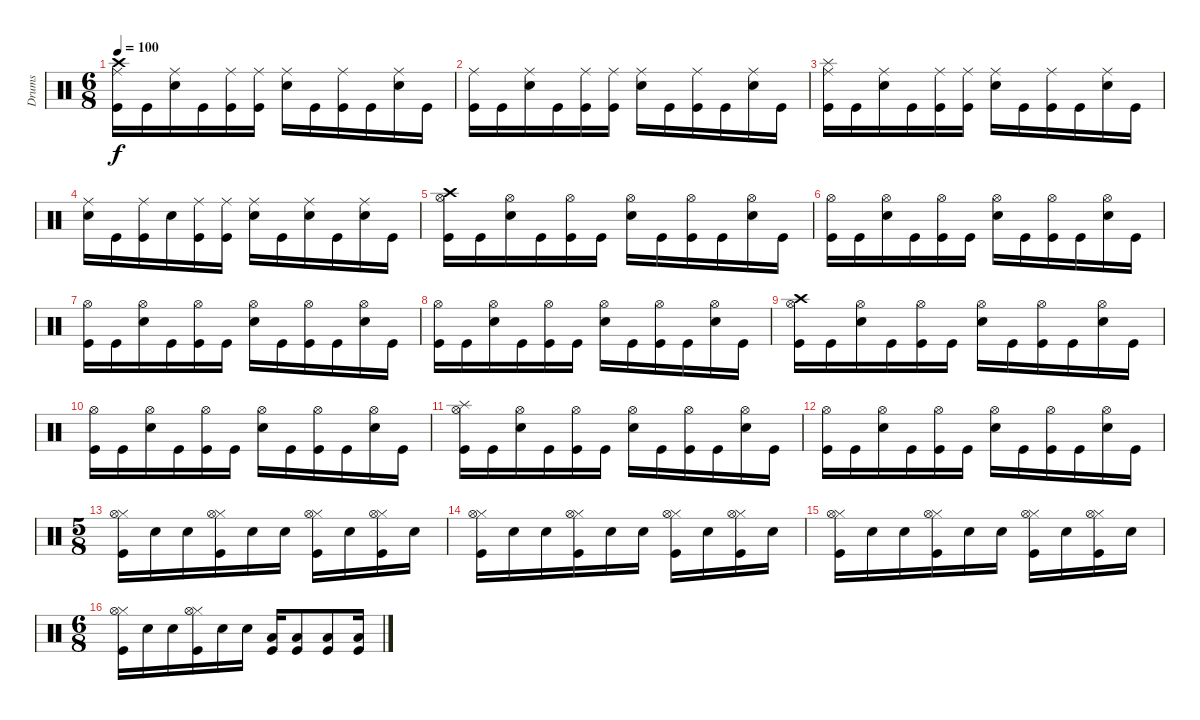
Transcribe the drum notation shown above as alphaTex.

\track ("Drums" "Drums") {instrument percussion}
\staff {score}
\articulation defaults
\ts (6 8)
\tempo 100
\clef neutral
\ks c
("Crash high (hit)" "Ride (middle)" "Kick (hit)").16{dy f} "Kick (hit)".16 ("Ride (middle)" "Electric Snare (hit)").16 "Kick (hit)".16 ("Ride (middle)" "Kick (hit)").16 ("Ride (middle)" "Kick (hit)").16 ("Ride (middle)" "Electric Snare (hit)").16 "Kick (hit)".16 ("Ride (middle)" "Kick (hit)").16 "Kick (hit)".16 ("Ride (middle)" "Electric Snare (hit)").16 "Kick (hit)".16 |
("Ride (middle)" "Kick (hit)").16 "Kick (hit)".16 ("Ride (middle)" "Electric Snare (hit)").16 "Kick (hit)".16 ("Ride (middle)" "Kick (hit)").16 ("Ride (middle)" "Kick (hit)").16 ("Ride (middle)" "Electric Snare (hit)").16 "Kick (hit)".16 ("Ride (middle)" "Kick (hit)").16 "Kick (hit)".16 ("Ride (middle)" "Electric Snare (hit)").16 "Kick (hit)".16 |
("Splash (hit)" "Ride (middle)" "Kick (hit)").16 "Kick (hit)".16 ("Ride (middle)" "Electric Snare (hit)").16 "Kick (hit)".16 ("Ride (middle)" "Kick (hit)").16 ("Ride (middle)" "Kick (hit)").16 ("Ride (middle)" "Electric Snare (hit)").16 "Kick (hit)".16 ("Ride (middle)" "Kick (hit)").16 "Kick (hit)".16 ("Ride (middle)" "Electric Snare (hit)").16 "Kick (hit)".16 |
("Ride (middle)" "Electric Snare (hit)").16 "Kick (hit)".16 ("Ride (middle)" "Kick (hit)").16 "Electric Snare (hit)".16 ("Ride (middle)" "Kick (hit)").16 ("Ride (middle)" "Kick (hit)").16 ("Ride (middle)" "Electric Snare (hit)").16 "Kick (hit)".16 ("Ride (middle)" "Electric Snare (hit)").16 "Kick (hit)".16 ("Ride (middle)" "Electric Snare (hit)").16 "Kick (hit)".16 |
("Crash high (hit)" "Hi-Hat (open)" "Kick (hit)").16 "Kick (hit)".16 ("Hi-Hat (open)" "Electric Snare (hit)").16 "Kick (hit)".16 ("Hi-Hat (open)" "Kick (hit)").16 "Kick (hit)".16 ("Hi-Hat (open)" "Electric Snare (hit)").16 "Kick (hit)".16 ("Hi-Hat (open)" "Kick (hit)").16 "Kick (hit)".16 ("Hi-Hat (open)" "Electric Snare (hit)").16 "Kick (hit)".16 |
("Hi-Hat (open)" "Kick (hit)").16 "Kick (hit)".16 ("Hi-Hat (open)" "Electric Snare (hit)").16 "Kick (hit)".16 ("Hi-Hat (open)" "Kick (hit)").16 "Kick (hit)".16 ("Hi-Hat (open)" "Electric Snare (hit)").16 "Kick (hit)".16 ("Hi-Hat (open)" "Kick (hit)").16 "Kick (hit)".16 ("Hi-Hat (open)" "Electric Snare (hit)").16 "Kick (hit)".16 |
("Hi-Hat (open)" "Kick (hit)").16 "Kick (hit)".16 ("Hi-Hat (open)" "Electric Snare (hit)").16 "Kick (hit)".16 ("Hi-Hat (open)" "Kick (hit)").16 "Kick (hit)".16 ("Hi-Hat (open)" "Electric Snare (hit)").16 "Kick (hit)".16 ("Hi-Hat (open)" "Kick (hit)").16 "Kick (hit)".16 ("Hi-Hat (open)" "Electric Snare (hit)").16 "Kick (hit)".16 |
("Hi-Hat (open)" "Kick (hit)").16 "Kick (hit)".16 ("Hi-Hat (open)" "Electric Snare (hit)").16 "Kick (hit)".16 ("Hi-Hat (open)" "Kick (hit)").16 "Kick (hit)".16 ("Hi-Hat (open)" "Electric Snare (hit)").16 "Kick (hit)".16 ("Hi-Hat (open)" "Kick (hit)").16 "Kick (hit)".16 ("Hi-Hat (open)" "Electric Snare (hit)").16 "Kick (hit)".16 |
("Crash high (hit)" "Hi-Hat (open)" "Kick (hit)").16 "Kick (hit)".16 ("Hi-Hat (open)" "Electric Snare (hit)").16 "Kick (hit)".16 ("Hi-Hat (open)" "Kick (hit)").16 "Kick (hit)".16 ("Hi-Hat (open)" "Electric Snare (hit)").16 "Kick (hit)".16 ("Hi-Hat (open)" "Kick (hit)").16 "Kick (hit)".16 ("Hi-Hat (open)" "Electric Snare (hit)").16 "Kick (hit)".16 |
("Hi-Hat (open)" "Kick (hit)").16 "Kick (hit)".16 ("Hi-Hat (open)" "Electric Snare (hit)").16 "Kick (hit)".16 ("Hi-Hat (open)" "Kick (hit)").16 "Kick (hit)".16 ("Hi-Hat (open)" "Electric Snare (hit)").16 "Kick (hit)".16 ("Hi-Hat (open)" "Kick (hit)").16 "Kick (hit)".16 ("Hi-Hat (open)" "Electric Snare (hit)").16 "Kick (hit)".16 |
("Splash (hit)" "Hi-Hat (open)" "Kick (hit)").16 "Kick (hit)".16 ("Hi-Hat (open)" "Electric Snare (hit)").16 "Kick (hit)".16 ("Hi-Hat (open)" "Kick (hit)").16 "Kick (hit)".16 ("Hi-Hat (open)" "Electric Snare (hit)").16 "Kick (hit)".16 ("Hi-Hat (open)" "Kick (hit)").16 "Kick (hit)".16 ("Hi-Hat (open)" "Electric Snare (hit)").16 "Kick (hit)".16 |
("Hi-Hat (open)" "Kick (hit)").16 "Kick (hit)".16 ("Hi-Hat (open)" "Electric Snare (hit)").16 "Kick (hit)".16 ("Hi-Hat (open)" "Kick (hit)").16 "Kick (hit)".16 ("Hi-Hat (open)" "Electric Snare (hit)").16 "Kick (hit)".16 ("Hi-Hat (open)" "Kick (hit)").16 "Kick (hit)".16 ("Hi-Hat (open)" "Electric Snare (hit)").16 "Kick (hit)".16 |
\ts (5 8)
("Hi-Hat (closed)" "Hi-Hat (open)" "Kick (hit)").16 "Electric Snare (hit)".16 "Electric Snare (hit)".16 ("Hi-Hat (closed)" "Hi-Hat (open)" "Kick (hit)").16 "Electric Snare (hit)".16 "Electric Snare (hit)".16 ("Hi-Hat (closed)" "Hi-Hat (open)" "Kick (hit)").16 "Electric Snare (hit)".16 ("Hi-Hat (closed)" "Hi-Hat (open)" "Kick (hit)").16 "Electric Snare (hit)".16 |
("Hi-Hat (closed)" "Hi-Hat (open)" "Kick (hit)").16 "Electric Snare (hit)".16 "Electric Snare (hit)".16 ("Hi-Hat (closed)" "Hi-Hat (open)" "Kick (hit)").16 "Electric Snare (hit)".16 "Electric Snare (hit)".16 ("Hi-Hat (closed)" "Hi-Hat (open)" "Kick (hit)").16 "Electric Snare (hit)".16 ("Hi-Hat (closed)" "Hi-Hat (open)" "Kick (hit)").16 "Electric Snare (hit)".16 |
("Hi-Hat (closed)" "Hi-Hat (open)" "Kick (hit)").16 "Electric Snare (hit)".16 "Electric Snare (hit)".16 ("Hi-Hat (closed)" "Hi-Hat (open)" "Kick (hit)").16 "Electric Snare (hit)".16 "Electric Snare (hit)".16 ("Hi-Hat (closed)" "Hi-Hat (open)" "Kick (hit)").16 "Electric Snare (hit)".16 ("Hi-Hat (closed)" "Hi-Hat (open)" "Kick (hit)").16 "Electric Snare (hit)".16 |
\ts (6 8)
("Hi-Hat (closed)" "Hi-Hat (open)" "Kick (hit)").16 "Electric Snare (hit)".16 "Electric Snare (hit)".16 ("Hi-Hat (closed)" "Hi-Hat (open)" "Kick (hit)").16 "Electric Snare (hit)".16 "Electric Snare (hit)".16 ("Low Floor Tom (hit)" "Kick (hit)").16 ("Low Floor Tom (hit)" "Kick (hit)").8 ("Low Floor Tom (hit)" "Kick (hit)").8 ("Low Floor Tom (hit)" "Kick (hit)").16
